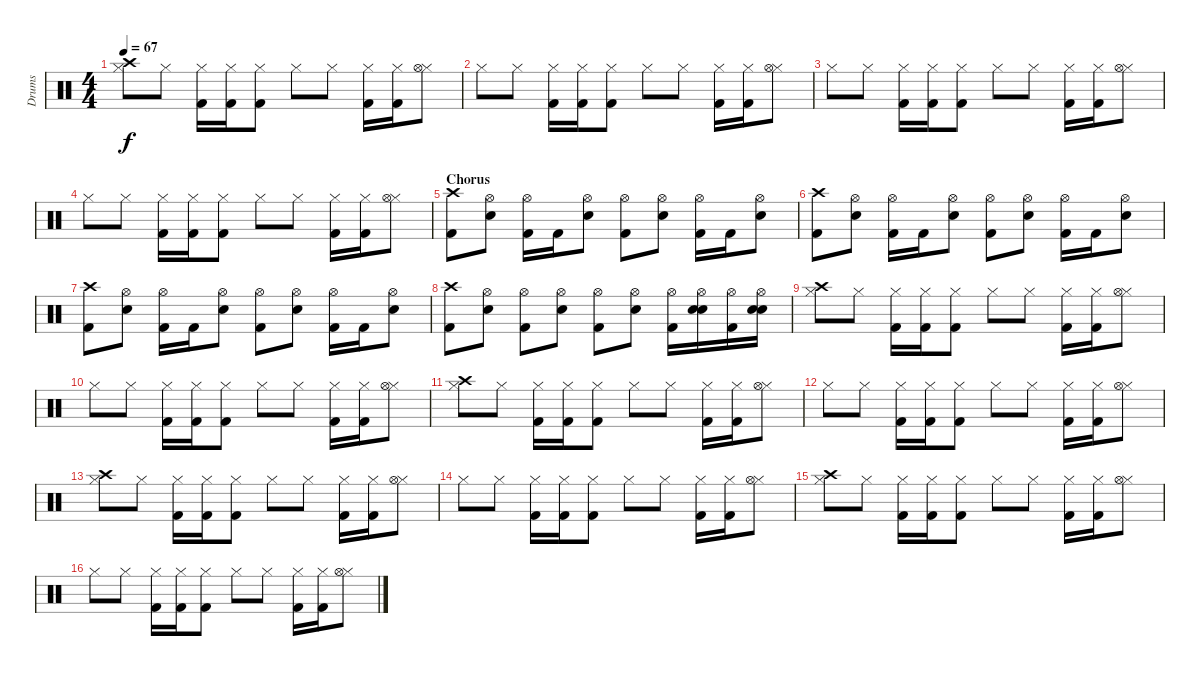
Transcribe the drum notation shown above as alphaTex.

\track ("Drums" "Drums") {instrument percussion}
\staff {score}
\articulation defaults
\ts (4 4)
\tempo 67
\clef neutral
\ks c
("Crash high (hit)" "Hi-Hat (closed)").8{dy f} "Hi-Hat (closed)".8 ("Hi-Hat (closed)" "Kick (hit) 2").16 ("Hi-Hat (closed)" "Kick (hit) 2").16 ("Hi-Hat (closed)" "Kick (hit) 2").8 "Hi-Hat (closed)".8 "Hi-Hat (closed)".8 ("Hi-Hat (closed)" "Kick (hit) 2").16 ("Hi-Hat (closed)" "Kick (hit) 2").16 ("Hi-Hat (closed)" "Hi-Hat (open)").8 |
"Hi-Hat (closed)".8 "Hi-Hat (closed)".8 ("Hi-Hat (closed)" "Kick (hit) 2").16 ("Hi-Hat (closed)" "Kick (hit) 2").16 ("Hi-Hat (closed)" "Kick (hit) 2").8 "Hi-Hat (closed)".8 "Hi-Hat (closed)".8 ("Hi-Hat (closed)" "Kick (hit) 2").16 ("Hi-Hat (closed)" "Kick (hit) 2").16 ("Hi-Hat (closed)" "Hi-Hat (open)").8 |
"Hi-Hat (closed)".8 "Hi-Hat (closed)".8 ("Hi-Hat (closed)" "Kick (hit) 2").16 ("Hi-Hat (closed)" "Kick (hit) 2").16 ("Hi-Hat (closed)" "Kick (hit) 2").8 "Hi-Hat (closed)".8 "Hi-Hat (closed)".8 ("Hi-Hat (closed)" "Kick (hit) 2").16 ("Hi-Hat (closed)" "Kick (hit) 2").16 ("Hi-Hat (closed)" "Hi-Hat (open)").8 |
"Hi-Hat (closed)".8 "Hi-Hat (closed)".8 ("Hi-Hat (closed)" "Kick (hit) 2").16 ("Hi-Hat (closed)" "Kick (hit) 2").16 ("Hi-Hat (closed)" "Kick (hit) 2").8 "Hi-Hat (closed)".8 "Hi-Hat (closed)".8 ("Hi-Hat (closed)" "Kick (hit) 2").16 ("Hi-Hat (closed)" "Kick (hit) 2").16 ("Hi-Hat (closed)" "Hi-Hat (open)").8 |
\section ("" "Chorus")
("Crash high (hit)" "Kick (hit) 2").8 ("Hi-Hat (open)" "Electric Snare (hit)").8 ("Hi-Hat (open)" "Kick (hit) 2").16 "Kick (hit) 2".16 ("Hi-Hat (open)" "Electric Snare (hit)").8 ("Hi-Hat (open)" "Kick (hit) 2").8 ("Hi-Hat (open)" "Electric Snare (hit)").8 ("Hi-Hat (open)" "Kick (hit) 2").16 "Kick (hit) 2".16 ("Hi-Hat (open)" "Electric Snare (hit)").8 |
("Crash high (hit)" "Kick (hit) 2").8 ("Hi-Hat (open)" "Electric Snare (hit)").8 ("Hi-Hat (open)" "Kick (hit) 2").16 "Kick (hit) 2".16 ("Hi-Hat (open)" "Electric Snare (hit)").8 ("Hi-Hat (open)" "Kick (hit) 2").8 ("Hi-Hat (open)" "Electric Snare (hit)").8 ("Hi-Hat (open)" "Kick (hit) 2").16 "Kick (hit) 2".16 ("Hi-Hat (open)" "Electric Snare (hit)").8 |
("Crash high (hit)" "Kick (hit) 2").8 ("Hi-Hat (open)" "Electric Snare (hit)").8 ("Hi-Hat (open)" "Kick (hit) 2").16 "Kick (hit) 2".16 ("Hi-Hat (open)" "Electric Snare (hit)").8 ("Hi-Hat (open)" "Kick (hit) 2").8 ("Hi-Hat (open)" "Electric Snare (hit)").8 ("Hi-Hat (open)" "Kick (hit) 2").16 "Kick (hit) 2".16 ("Hi-Hat (open)" "Electric Snare (hit)").8 |
("Crash high (hit)" "Kick (hit) 2").8 ("Hi-Hat (open)" "Electric Snare (hit)").8 ("Hi-Hat (open)" "Kick (hit) 2").8 ("Hi-Hat (open)" "Electric Snare (hit)").8 ("Hi-Hat (open)" "Kick (hit) 2").8 ("Hi-Hat (open)" "Electric Snare (hit)").8 ("Hi-Hat (open)" "Kick (hit) 2").16 ("Hi-Hat (open)" "Electric Snare (hit)" "Electric Snare (hit)").16 ("Hi-Hat (open)" "Kick (hit) 2").16 ("Hi-Hat (open)" "Electric Snare (hit)" "Electric Snare (hit)").16 |
("Crash high (hit)" "Hi-Hat (closed)").8 "Hi-Hat (closed)".8 ("Hi-Hat (closed)" "Kick (hit) 2").16 ("Hi-Hat (closed)" "Kick (hit) 2").16 ("Hi-Hat (closed)" "Kick (hit) 2").8 "Hi-Hat (closed)".8 "Hi-Hat (closed)".8 ("Hi-Hat (closed)" "Kick (hit) 2").16 ("Hi-Hat (closed)" "Kick (hit) 2").16 ("Hi-Hat (closed)" "Hi-Hat (open)").8 |
"Hi-Hat (closed)".8 "Hi-Hat (closed)".8 ("Hi-Hat (closed)" "Kick (hit) 2").16 ("Hi-Hat (closed)" "Kick (hit) 2").16 ("Hi-Hat (closed)" "Kick (hit) 2").8 "Hi-Hat (closed)".8 "Hi-Hat (closed)".8 ("Hi-Hat (closed)" "Kick (hit) 2").16 ("Hi-Hat (closed)" "Kick (hit) 2").16 ("Hi-Hat (closed)" "Hi-Hat (open)").8 |
("Crash high (hit)" "Hi-Hat (closed)").8 "Hi-Hat (closed)".8 ("Hi-Hat (closed)" "Kick (hit) 2").16 ("Hi-Hat (closed)" "Kick (hit) 2").16 ("Hi-Hat (closed)" "Kick (hit) 2").8 "Hi-Hat (closed)".8 "Hi-Hat (closed)".8 ("Hi-Hat (closed)" "Kick (hit) 2").16 ("Hi-Hat (closed)" "Kick (hit) 2").16 ("Hi-Hat (closed)" "Hi-Hat (open)").8 |
"Hi-Hat (closed)".8 "Hi-Hat (closed)".8 ("Hi-Hat (closed)" "Kick (hit) 2").16 ("Hi-Hat (closed)" "Kick (hit) 2").16 ("Hi-Hat (closed)" "Kick (hit) 2").8 "Hi-Hat (closed)".8 "Hi-Hat (closed)".8 ("Hi-Hat (closed)" "Kick (hit) 2").16 ("Hi-Hat (closed)" "Kick (hit) 2").16 ("Hi-Hat (closed)" "Hi-Hat (open)").8 |
("Crash high (hit)" "Hi-Hat (closed)").8 "Hi-Hat (closed)".8 ("Hi-Hat (closed)" "Kick (hit) 2").16 ("Hi-Hat (closed)" "Kick (hit) 2").16 ("Hi-Hat (closed)" "Kick (hit) 2").8 "Hi-Hat (closed)".8 "Hi-Hat (closed)".8 ("Hi-Hat (closed)" "Kick (hit) 2").16 ("Hi-Hat (closed)" "Kick (hit) 2").16 ("Hi-Hat (closed)" "Hi-Hat (open)").8 |
"Hi-Hat (closed)".8 "Hi-Hat (closed)".8 ("Hi-Hat (closed)" "Kick (hit) 2").16 ("Hi-Hat (closed)" "Kick (hit) 2").16 ("Hi-Hat (closed)" "Kick (hit) 2").8 "Hi-Hat (closed)".8 "Hi-Hat (closed)".8 ("Hi-Hat (closed)" "Kick (hit) 2").16 ("Hi-Hat (closed)" "Kick (hit) 2").16 ("Hi-Hat (closed)" "Hi-Hat (open)").8 |
("Crash high (hit)" "Hi-Hat (closed)").8 "Hi-Hat (closed)".8 ("Hi-Hat (closed)" "Kick (hit) 2").16 ("Hi-Hat (closed)" "Kick (hit) 2").16 ("Hi-Hat (closed)" "Kick (hit) 2").8 "Hi-Hat (closed)".8 "Hi-Hat (closed)".8 ("Hi-Hat (closed)" "Kick (hit) 2").16 ("Hi-Hat (closed)" "Kick (hit) 2").16 ("Hi-Hat (closed)" "Hi-Hat (open)").8 |
"Hi-Hat (closed)".8 "Hi-Hat (closed)".8 ("Hi-Hat (closed)" "Kick (hit) 2").16 ("Hi-Hat (closed)" "Kick (hit) 2").16 ("Hi-Hat (closed)" "Kick (hit) 2").8 "Hi-Hat (closed)".8 "Hi-Hat (closed)".8 ("Hi-Hat (closed)" "Kick (hit) 2").16 ("Hi-Hat (closed)" "Kick (hit) 2").16 ("Hi-Hat (closed)" "Hi-Hat (open)").8
